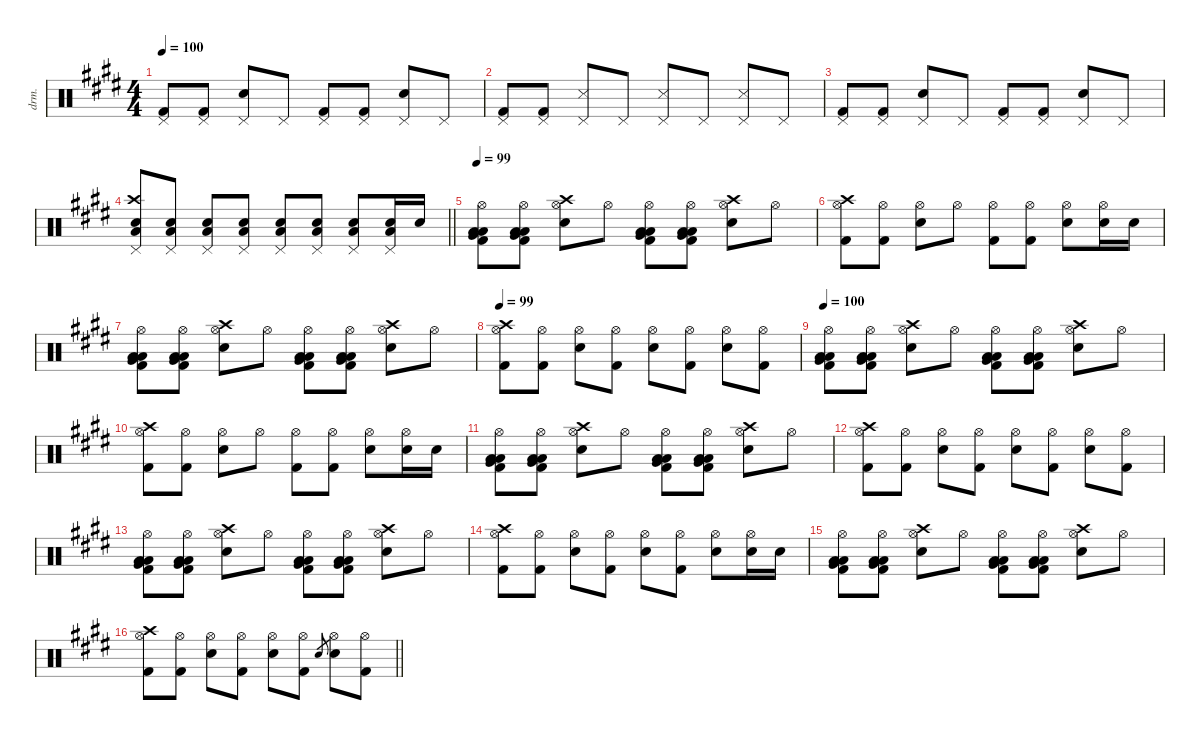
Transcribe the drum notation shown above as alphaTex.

\defaultSystemsLayout 4
\hideDynamics
\bracketExtendMode nobrackets
\otherSystemsTrackNameOrientation horizontal
\track ("Percussion" "drm.") {instrument percussion}
\staff {score}
\articulation defaults
\ts (4 4)
\tempo 100
\clef neutral
\ks c#minor
("Kick (hit) 2"{acc forcenatural} "Pedal Hi-Hat (hit)"{acc forcenatural}).8{dy f beam Up} ("Kick (hit) 2"{acc forcenatural} "Pedal Hi-Hat (hit)"{acc forcenatural}).8{beam Up} ("Snare (hit) 2"{acc forcenatural} "Pedal Hi-Hat (hit)"{acc forcenatural}).8{beam Up} "Pedal Hi-Hat (hit)"{acc forcenatural}.8{beam Up} ("Kick (hit) 2"{acc forcenatural} "Pedal Hi-Hat (hit)"{acc forcenatural}).8{beam Up} ("Kick (hit) 2"{acc forcenatural} "Pedal Hi-Hat (hit)"{acc forcenatural}).8{beam Up} ("Snare (hit) 2"{acc forcenatural} "Pedal Hi-Hat (hit)"{acc forcenatural}).8{beam Up} "Pedal Hi-Hat (hit)"{acc forcenatural}.8{beam Up} |
("Kick (hit) 2"{acc forcenatural} "Pedal Hi-Hat (hit)"{acc forcenatural}).8{beam Up} ("Kick (hit) 2"{acc forcenatural} "Pedal Hi-Hat (hit)"{acc forcenatural}).8{beam Up} ("Metronome (hit)"{acc forcenatural} "Pedal Hi-Hat (hit)"{acc forcenatural}).8{beam Up} "Pedal Hi-Hat (hit)"{acc forcenatural}.8{beam Up} ("Metronome (hit)"{acc forcenatural} "Pedal Hi-Hat (hit)"{acc forcenatural}).8{beam Up} "Pedal Hi-Hat (hit)"{acc forcenatural}.8{beam Up} ("Metronome (hit)"{acc forcenatural} "Pedal Hi-Hat (hit)"{acc forcenatural}).8{beam Up} "Pedal Hi-Hat (hit)"{acc forcenatural}.8{beam Up} |
("Kick (hit) 2"{acc forcenatural} "Pedal Hi-Hat (hit)"{acc forcenatural}).8{beam Up} ("Kick (hit) 2"{acc forcenatural} "Pedal Hi-Hat (hit)"{acc forcenatural}).8{beam Up} ("Snare (hit) 2"{acc forcenatural} "Pedal Hi-Hat (hit)"{acc forcenatural}).8{beam Up} "Pedal Hi-Hat (hit)"{acc forcenatural}.8{beam Up} ("Kick (hit) 2"{acc forcenatural} "Pedal Hi-Hat (hit)"{acc forcenatural}).8{beam Up} ("Kick (hit) 2"{acc forcenatural} "Pedal Hi-Hat (hit)"{acc forcenatural}).8{beam Up} ("Snare (hit) 2"{acc forcenatural} "Pedal Hi-Hat (hit)"{acc forcenatural}).8{beam Up} "Pedal Hi-Hat (hit)"{acc forcenatural}.8{beam Up} |
\barLineRight lightlight
("Snare (hit) 2"{acc forcenatural} "Low Tom (hit)"{acc forcenatural} "Crash high (hit)"{acc forcenatural} "Pedal Hi-Hat (hit)"{acc forcenatural}).8{dy mp beam Up} ("Snare (hit) 2"{acc forcenatural} "Low Tom (hit)"{acc forcenatural} "Pedal Hi-Hat (hit)"{acc forcenatural}).8{beam Up} ("Snare (hit) 2"{acc forcenatural} "Low Tom (hit)"{acc forcenatural} "Pedal Hi-Hat (hit)"{acc forcenatural}).8{dy mf beam Up} ("Snare (hit) 2"{acc forcenatural} "Low Tom (hit)"{acc forcenatural} "Pedal Hi-Hat (hit)"{acc forcenatural}).8{beam Up} ("Snare (hit) 2"{acc forcenatural} "Low Tom (hit)"{acc forcenatural} "Pedal Hi-Hat (hit)"{acc forcenatural}).8{dy f beam Up} ("Snare (hit) 2"{acc forcenatural} "Low Tom (hit)"{acc forcenatural} "Pedal Hi-Hat (hit)"{acc forcenatural}).8{beam Up} ("Snare (hit) 2"{acc forcenatural} "Low Tom (hit)"{acc forcenatural} "Pedal Hi-Hat (hit)"{acc forcenatural}).8{beam Up} ("Snare (hit) 2"{acc forcenatural} "Low Tom (hit)"{acc forcenatural} "Pedal Hi-Hat (hit)"{acc forcenatural}).16{beam Up} "Snare (hit) 2"{acc forcenatural}.16{beam Up} |
\tempo 99
("Kick (hit) 2"{acc forcenatural} "Hi-Hat (open)"{acc forcenatural} "Low Tom (hit)"{acc forcenatural} "Very Low Tom (hit)"{acc forcenatural} "Low Floor Tom (hit)"{acc forcenatural}).8{beam Down} ("Kick (hit) 2"{acc forcenatural} "Hi-Hat (open)"{acc forcenatural} "Low Tom (hit)"{acc forcenatural} "Very Low Tom (hit)"{acc forcenatural} "Low Floor Tom (hit)"{acc forcenatural}).8{beam Down} ("Snare (hit) 2"{acc forcenatural} "Hi-Hat (open)"{acc forcenatural} "Crash high (hit)"{acc forcenatural}).8{beam Down} "Hi-Hat (open)"{acc forcenatural}.8{beam Down} ("Kick (hit) 2"{acc forcenatural} "Hi-Hat (open)"{acc forcenatural} "Low Tom (hit)"{acc forcenatural} "Very Low Tom (hit)"{acc forcenatural} "Low Floor Tom (hit)"{acc forcenatural}).8{beam Down} ("Kick (hit) 2"{acc forcenatural} "Hi-Hat (open)"{acc forcenatural} "Low Tom (hit)"{acc forcenatural} "Very Low Tom (hit)"{acc forcenatural} "Low Floor Tom (hit)"{acc forcenatural}).8{beam Down} ("Snare (hit) 2"{acc forcenatural} "Hi-Hat (open)"{acc forcenatural} "Crash high (hit)"{acc forcenatural}).8{beam Down} "Hi-Hat (open)"{acc forcenatural}.8{beam Down} |
("Kick (hit) 2"{acc forcenatural} "Hi-Hat (open)"{acc forcenatural} "Crash high (hit)"{acc forcenatural}).8{beam Down} ("Kick (hit) 2"{acc forcenatural} "Hi-Hat (open)"{acc forcenatural}).8{beam Down} ("Snare (hit) 2"{acc forcenatural} "Hi-Hat (open)"{acc forcenatural}).8{beam Down} "Hi-Hat (open)"{acc forcenatural}.8{beam Down} ("Kick (hit) 2"{acc forcenatural} "Hi-Hat (open)"{acc forcenatural}).8{beam Down} ("Kick (hit) 2"{acc forcenatural} "Hi-Hat (open)"{acc forcenatural}).8{beam Down} ("Snare (hit) 2"{acc forcenatural} "Hi-Hat (open)"{acc forcenatural}).8{beam Down} ("Snare (hit) 2"{acc forcenatural} "Hi-Hat (open)"{acc forcenatural}).16{beam Down} "Snare (hit) 2"{acc forcenatural}.16{beam Down} |
("Kick (hit) 2"{acc forcenatural} "Hi-Hat (open)"{acc forcenatural} "Low Tom (hit)"{acc forcenatural} "Very Low Tom (hit)"{acc forcenatural} "Low Floor Tom (hit)"{acc forcenatural}).8{beam Down} ("Kick (hit) 2"{acc forcenatural} "Hi-Hat (open)"{acc forcenatural} "Low Tom (hit)"{acc forcenatural} "Very Low Tom (hit)"{acc forcenatural} "Low Floor Tom (hit)"{acc forcenatural}).8{beam Down} ("Snare (hit) 2"{acc forcenatural} "Hi-Hat (open)"{acc forcenatural} "Crash high (hit)"{acc forcenatural}).8{beam Down} "Hi-Hat (open)"{acc forcenatural}.8{beam Down} ("Kick (hit) 2"{acc forcenatural} "Hi-Hat (open)"{acc forcenatural} "Low Tom (hit)"{acc forcenatural} "Very Low Tom (hit)"{acc forcenatural} "Low Floor Tom (hit)"{acc forcenatural}).8{beam Down} ("Kick (hit) 2"{acc forcenatural} "Hi-Hat (open)"{acc forcenatural} "Low Tom (hit)"{acc forcenatural} "Very Low Tom (hit)"{acc forcenatural} "Low Floor Tom (hit)"{acc forcenatural}).8{beam Down} ("Snare (hit) 2"{acc forcenatural} "Hi-Hat (open)"{acc forcenatural} "Crash high (hit)"{acc forcenatural}).8{beam Down} "Hi-Hat (open)"{acc forcenatural}.8{beam Down} |
\tempo 99
("Kick (hit) 2"{acc forcenatural} "Hi-Hat (open)"{acc forcenatural} "Crash high (hit)"{acc forcenatural}).8{beam Down} ("Kick (hit) 2"{acc forcenatural} "Hi-Hat (open)"{acc forcenatural}).8{beam Down} ("Snare (hit) 2"{acc forcenatural} "Hi-Hat (open)"{acc forcenatural}).8{beam Down} ("Kick (hit) 2"{acc forcenatural} "Hi-Hat (open)"{acc forcenatural}).8{beam Down} ("Snare (hit) 2"{acc forcenatural} "Hi-Hat (open)"{acc forcenatural}).8{beam Down} ("Kick (hit) 2"{acc forcenatural} "Hi-Hat (open)"{acc forcenatural}).8{beam Down} ("Snare (hit) 2"{acc forcenatural} "Hi-Hat (open)"{acc forcenatural}).8{beam Down} ("Kick (hit) 2"{acc forcenatural} "Hi-Hat (open)"{acc forcenatural}).8{beam Down} |
\tempo 100
("Kick (hit) 2"{acc forcenatural} "Hi-Hat (open)"{acc forcenatural} "Low Tom (hit)"{acc forcenatural} "Very Low Tom (hit)"{acc forcenatural} "Low Floor Tom (hit)"{acc forcenatural}).8{beam Down} ("Kick (hit) 2"{acc forcenatural} "Hi-Hat (open)"{acc forcenatural} "Low Tom (hit)"{acc forcenatural} "Very Low Tom (hit)"{acc forcenatural} "Low Floor Tom (hit)"{acc forcenatural}).8{beam Down} ("Snare (hit) 2"{acc forcenatural} "Hi-Hat (open)"{acc forcenatural} "Crash high (hit)"{acc forcenatural}).8{beam Down} "Hi-Hat (open)"{acc forcenatural}.8{beam Down} ("Kick (hit) 2"{acc forcenatural} "Hi-Hat (open)"{acc forcenatural} "Low Tom (hit)"{acc forcenatural} "Very Low Tom (hit)"{acc forcenatural} "Low Floor Tom (hit)"{acc forcenatural}).8{beam Down} ("Kick (hit) 2"{acc forcenatural} "Hi-Hat (open)"{acc forcenatural} "Low Tom (hit)"{acc forcenatural} "Very Low Tom (hit)"{acc forcenatural} "Low Floor Tom (hit)"{acc forcenatural}).8{beam Down} ("Snare (hit) 2"{acc forcenatural} "Hi-Hat (open)"{acc forcenatural} "Crash high (hit)"{acc forcenatural}).8{beam Down} "Hi-Hat (open)"{acc forcenatural}.8{beam Down} |
("Kick (hit) 2"{acc forcenatural} "Hi-Hat (open)"{acc forcenatural} "Crash high (hit)"{acc forcenatural}).8{beam Down} ("Kick (hit) 2"{acc forcenatural} "Hi-Hat (open)"{acc forcenatural}).8{beam Down} ("Snare (hit) 2"{acc forcenatural} "Hi-Hat (open)"{acc forcenatural}).8{beam Down} "Hi-Hat (open)"{acc forcenatural}.8{beam Down} ("Kick (hit) 2"{acc forcenatural} "Hi-Hat (open)"{acc forcenatural}).8{beam Down} ("Kick (hit) 2"{acc forcenatural} "Hi-Hat (open)"{acc forcenatural}).8{beam Down} ("Snare (hit) 2"{acc forcenatural} "Hi-Hat (open)"{acc forcenatural}).8{beam Down} ("Snare (hit) 2"{acc forcenatural} "Hi-Hat (open)"{acc forcenatural}).16{beam Down} "Snare (hit) 2"{acc forcenatural}.16{beam Down} |
("Kick (hit) 2"{acc forcenatural} "Hi-Hat (open)"{acc forcenatural} "Low Tom (hit)"{acc forcenatural} "Very Low Tom (hit)"{acc forcenatural} "Low Floor Tom (hit)"{acc forcenatural}).8{beam Down} ("Kick (hit) 2"{acc forcenatural} "Hi-Hat (open)"{acc forcenatural} "Low Tom (hit)"{acc forcenatural} "Very Low Tom (hit)"{acc forcenatural} "Low Floor Tom (hit)"{acc forcenatural}).8{beam Down} ("Snare (hit) 2"{acc forcenatural} "Hi-Hat (open)"{acc forcenatural} "Crash high (hit)"{acc forcenatural}).8{beam Down} "Hi-Hat (open)"{acc forcenatural}.8{beam Down} ("Kick (hit) 2"{acc forcenatural} "Hi-Hat (open)"{acc forcenatural} "Low Tom (hit)"{acc forcenatural} "Very Low Tom (hit)"{acc forcenatural} "Low Floor Tom (hit)"{acc forcenatural}).8{beam Down} ("Kick (hit) 2"{acc forcenatural} "Hi-Hat (open)"{acc forcenatural} "Low Tom (hit)"{acc forcenatural} "Very Low Tom (hit)"{acc forcenatural} "Low Floor Tom (hit)"{acc forcenatural}).8{beam Down} ("Snare (hit) 2"{acc forcenatural} "Hi-Hat (open)"{acc forcenatural} "Crash high (hit)"{acc forcenatural}).8{beam Down} "Hi-Hat (open)"{acc forcenatural}.8{beam Down} |
("Kick (hit) 2"{acc forcenatural} "Hi-Hat (open)"{acc forcenatural} "Crash high (hit)"{acc forcenatural}).8{beam Down} ("Kick (hit) 2"{acc forcenatural} "Hi-Hat (open)"{acc forcenatural}).8{beam Down} ("Snare (hit) 2"{acc forcenatural} "Hi-Hat (open)"{acc forcenatural}).8{beam Down} ("Kick (hit) 2"{acc forcenatural} "Hi-Hat (open)"{acc forcenatural}).8{beam Down} ("Snare (hit) 2"{acc forcenatural} "Hi-Hat (open)"{acc forcenatural}).8{beam Down} ("Kick (hit) 2"{acc forcenatural} "Hi-Hat (open)"{acc forcenatural}).8{beam Down} ("Snare (hit) 2"{acc forcenatural} "Hi-Hat (open)"{acc forcenatural}).8{beam Down} ("Kick (hit) 2"{acc forcenatural} "Hi-Hat (open)"{acc forcenatural}).8{beam Down} |
("Kick (hit) 2"{acc forcenatural} "Hi-Hat (open)"{acc forcenatural} "Low Tom (hit)"{acc forcenatural} "Very Low Tom (hit)"{acc forcenatural} "Low Floor Tom (hit)"{acc forcenatural}).8{beam Down} ("Kick (hit) 2"{acc forcenatural} "Hi-Hat (open)"{acc forcenatural} "Low Tom (hit)"{acc forcenatural} "Very Low Tom (hit)"{acc forcenatural} "Low Floor Tom (hit)"{acc forcenatural}).8{beam Down} ("Snare (hit) 2"{acc forcenatural} "Hi-Hat (open)"{acc forcenatural} "Crash high (hit)"{acc forcenatural}).8{beam Down} "Hi-Hat (open)"{acc forcenatural}.8{beam Down} ("Kick (hit) 2"{acc forcenatural} "Hi-Hat (open)"{acc forcenatural} "Low Tom (hit)"{acc forcenatural} "Very Low Tom (hit)"{acc forcenatural} "Low Floor Tom (hit)"{acc forcenatural}).8{beam Down} ("Kick (hit) 2"{acc forcenatural} "Hi-Hat (open)"{acc forcenatural} "Low Tom (hit)"{acc forcenatural} "Very Low Tom (hit)"{acc forcenatural} "Low Floor Tom (hit)"{acc forcenatural}).8{beam Down} ("Snare (hit) 2"{acc forcenatural} "Hi-Hat (open)"{acc forcenatural} "Crash high (hit)"{acc forcenatural}).8{beam Down} "Hi-Hat (open)"{acc forcenatural}.8{beam Down} |
("Kick (hit) 2"{acc forcenatural} "Hi-Hat (open)"{acc forcenatural} "Crash high (hit)"{acc forcenatural}).8{beam Down} ("Kick (hit) 2"{acc forcenatural} "Hi-Hat (open)"{acc forcenatural}).8{beam Down} ("Snare (hit) 2"{acc forcenatural} "Hi-Hat (open)"{acc forcenatural}).8{beam Down} ("Kick (hit) 2"{acc forcenatural} "Hi-Hat (open)"{acc forcenatural}).8{beam Down} ("Snare (hit) 2"{acc forcenatural} "Hi-Hat (open)"{acc forcenatural}).8{beam Down} ("Kick (hit) 2"{acc forcenatural} "Hi-Hat (open)"{acc forcenatural}).8{beam Down} ("Snare (hit) 2"{acc forcenatural} "Hi-Hat (open)"{acc forcenatural}).8{beam Down} ("Snare (hit) 2"{acc forcenatural} "Hi-Hat (open)"{acc forcenatural}).16{beam Down} "Snare (hit) 2"{acc forcenatural}.16{beam Down} |
("Kick (hit) 2"{acc forcenatural} "Hi-Hat (open)"{acc forcenatural} "Low Tom (hit)"{acc forcenatural} "Very Low Tom (hit)"{acc forcenatural} "Low Floor Tom (hit)"{acc forcenatural}).8{beam Down} ("Kick (hit) 2"{acc forcenatural} "Hi-Hat (open)"{acc forcenatural} "Low Tom (hit)"{acc forcenatural} "Very Low Tom (hit)"{acc forcenatural} "Low Floor Tom (hit)"{acc forcenatural}).8{beam Down} ("Snare (hit) 2"{acc forcenatural} "Hi-Hat (open)"{acc forcenatural} "Crash high (hit)"{acc forcenatural}).8{beam Down} "Hi-Hat (open)"{acc forcenatural}.8{beam Down} ("Kick (hit) 2"{acc forcenatural} "Hi-Hat (open)"{acc forcenatural} "Low Tom (hit)"{acc forcenatural} "Very Low Tom (hit)"{acc forcenatural} "Low Floor Tom (hit)"{acc forcenatural}).8{beam Down} ("Kick (hit) 2"{acc forcenatural} "Hi-Hat (open)"{acc forcenatural} "Low Tom (hit)"{acc forcenatural} "Very Low Tom (hit)"{acc forcenatural} "Low Floor Tom (hit)"{acc forcenatural}).8{beam Down} ("Snare (hit) 2"{acc forcenatural} "Hi-Hat (open)"{acc forcenatural} "Crash high (hit)"{acc forcenatural}).8{beam Down} "Hi-Hat (open)"{acc forcenatural}.8{beam Down} |
\barLineRight lightlight
("Kick (hit) 2"{acc forcenatural} "Hi-Hat (open)"{acc forcenatural} "Crash high (hit)"{acc forcenatural}).8{beam Down} ("Kick (hit) 2"{acc forcenatural} "Hi-Hat (open)"{acc forcenatural}).8{beam Down} ("Snare (hit) 2"{acc forcenatural} "Hi-Hat (open)"{acc forcenatural}).8{beam Down} ("Kick (hit) 2"{acc forcenatural} "Hi-Hat (open)"{acc forcenatural}).8{beam Down} ("Snare (hit) 2"{acc forcenatural} "Hi-Hat (open)"{acc forcenatural}).8{beam Down} ("Kick (hit) 2"{acc forcenatural} "Hi-Hat (open)"{acc forcenatural}).8{beam Down} "Snare (hit) 2"{acc forcenatural}.8{gr dy mf beam Up} ("Snare (hit) 2"{acc forcenatural} "Hi-Hat (open)"{acc forcenatural}).8{dy f beam Down} ("Kick (hit) 2"{acc forcenatural} "Hi-Hat (open)"{acc forcenatural}).8{beam Down}
